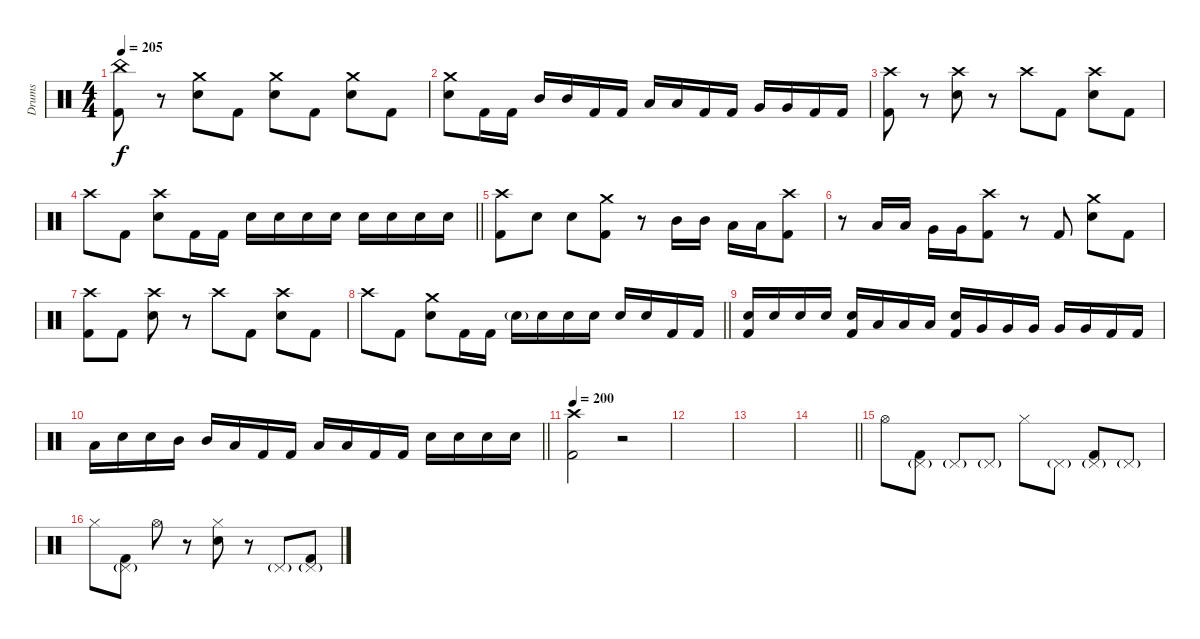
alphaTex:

\track ("Drums" "Drums") {instrument percussion}
\staff {score}
\articulation defaults
\ts (4 4)
\tempo 205
\clef neutral
\ks c
("China (hit)" "Kick (hit) 2").8{dy f} r.8 ("Crash medium (hit)" "Electric Snare (hit)").8 "Kick (hit) 2".8 ("Crash medium (hit)" "Electric Snare (hit)").8 "Kick (hit) 2".8 ("Crash medium (hit)" "Electric Snare (hit)").8 "Kick (hit) 2".8 |
("Crash medium (hit)" "Electric Snare (hit)").8 "Kick (hit) 2".16 "Kick (hit) 2".16 "Mid Tom (hit)".16 "Mid Tom (hit)".16 "Kick (hit) 2".16 "Kick (hit) 2".16 "Low Tom (hit)".16 "Low Tom (hit)".16 "Kick (hit) 2".16 "Kick (hit) 2".16 "Very Low Tom (hit)".16 "Very Low Tom (hit)".16 "Kick (hit) 2".16 "Kick (hit) 2".16 |
("Crash high (hit)" "Kick (hit) 2").8 r.8 ("Crash high (hit)" "Electric Snare (hit)").8 r.8 "Crash high (hit)".8 "Kick (hit) 2".8 ("Crash high (hit)" "Electric Snare (hit)").8 "Kick (hit) 2".8 |
\barLineRight lightlight "Crash high (hit)".8 "Kick (hit) 2".8
("Crash high (hit)" "Electric Snare (hit)").8 "Kick (hit) 2".16 "Kick (hit) 2".16 "Electric Snare (hit)".16 "Electric Snare (hit)".16 "Electric Snare (hit)".16 "Electric Snare (hit)".16 "Electric Snare (hit)".16 "Electric Snare (hit)".16 "Electric Snare (hit)".16 "Electric Snare (hit)".16 |
("Crash high (hit)" "Kick (hit) 2").8 "Electric Snare (hit)".8 "Electric Snare (hit)".8 ("Crash medium (hit)" "Kick (hit) 2").8 r.8 "Mid Tom (hit)".16 "Mid Tom (hit)".16 "Low Tom (hit)".16 "Low Tom (hit)".16 ("Crash high (hit)" "Kick (hit) 2").8 |
r.8 "Low Tom (hit)".16 "Low Tom (hit)".16 "Very Low Tom (hit)".16 "Very Low Tom (hit)".16 ("Crash high (hit)" "Kick (hit) 2").8 r.8 "Kick (hit) 2".8 ("Crash medium (hit)" "Electric Snare (hit)").8 "Kick (hit) 2".8 |
("Crash high (hit)" "Kick (hit) 2").8 "Kick (hit) 2".8 ("Crash high (hit)" "Electric Snare (hit)").8 r.8 "Crash high (hit)".8 "Kick (hit) 2".8 ("Crash high (hit)" "Electric Snare (hit)").8 "Kick (hit) 2".8 |
\barLineRight lightlight "Crash high (hit)".8 "Kick (hit) 2".8
("Crash medium (hit)" "Electric Snare (hit)").8 "Kick (hit) 2".16 "Kick (hit) 2".16 "Electric Snare (hit)"{g}.16 "Electric Snare (hit)".16 "Electric Snare (hit)".16 "Electric Snare (hit)".16 "Electric Snare (hit)".16 "Electric Snare (hit)".16 "Kick (hit) 2".16 "Kick (hit) 2".16 |
("Electric Snare (hit)" "Kick (hit) 2").16 "Electric Snare (hit)".16 "Electric Snare (hit)".16 "Electric Snare (hit)".16 ("Electric Snare (hit)" "Kick (hit) 2").16 "Low Tom (hit)".16 "Low Tom (hit)".16 "Low Tom (hit)".16 ("Electric Snare (hit)" "Kick (hit) 2").16 "Very Low Tom (hit)".16 "Very Low Tom (hit)".16 "Very Low Tom (hit)".16 "Very Low Tom (hit)".16 "Very Low Tom (hit)".16 "Kick (hit) 2".16 "Kick (hit) 2".16 |
\barLineRight lightlight "Low Tom (hit)".16 "Electric Snare (hit)".16 "Electric Snare (hit)".16 "Mid Tom (hit)".16 "Mid Tom (hit)".16 "Low Tom (hit)".16 "Kick (hit) 2".16 "Kick (hit) 2".16 "Low Tom (hit)".16 "Low Tom (hit)".16 "Kick (hit) 2".16 "Kick (hit) 2".16 "Electric Snare (hit)".16 "Electric Snare (hit)".16 "Electric Snare (hit)".16 "Electric Snare (hit)".16
|
\tempo 200
("Crash high (hit)" "Kick (hit) 2").2 r.2 |
|
|
\barLineRight lightlight
|
"Hi-Hat (open)".8 ("Pedal Hi-Hat (hit)"{g} "Kick (hit) 2").8 "Pedal Hi-Hat (hit)"{g}.8 "Pedal Hi-Hat (hit)"{g}.8 "Hi-Hat (closed)".8 "Pedal Hi-Hat (hit)"{g}.8 ("Pedal Hi-Hat (hit)"{g} "Kick (hit) 2").8 "Pedal Hi-Hat (hit)"{g}.8 |
"Hi-Hat (closed)".8 ("Pedal Hi-Hat (hit)"{g} "Kick (hit) 2").8 "Hi-Hat (open)".8 r.8 ("Hi-Hat (closed)" "Electric Snare (hit)").8 r.8 "Pedal Hi-Hat (hit)"{g}.8 ("Pedal Hi-Hat (hit)"{g} "Kick (hit) 2").8
